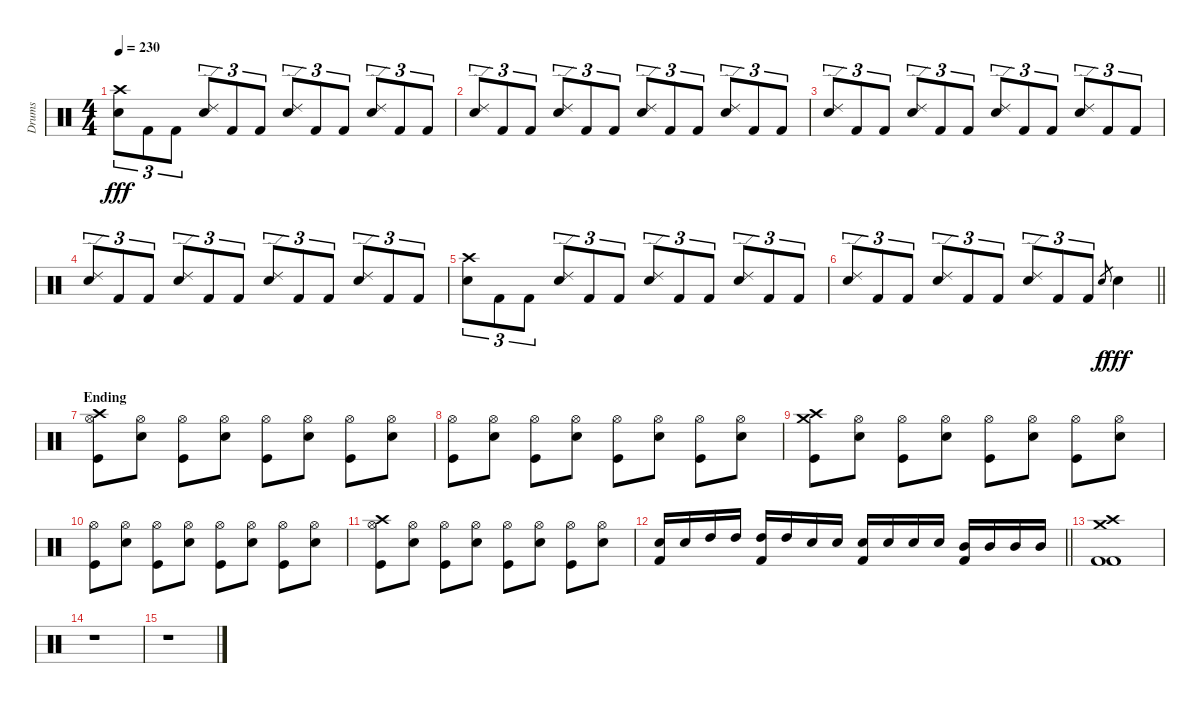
\track ("Drums" "Drums") {instrument percussion}
\staff {score}
\articulation defaults
\ts (4 4)
\tempo 230
\clef neutral
\ks c
("Crash high (hit)" "Electric Snare (hit)").8{tu (3 2) dy fff} "Kick (hit) 2".8{tu (3 2)} "Kick (hit) 2".8{tu (3 2)} ("Ride (edge) 2" "Electric Snare (hit)").8{tu (3 2)} "Kick (hit) 2".8{tu (3 2)} "Kick (hit) 2".8{tu (3 2)} ("Ride (edge) 2" "Electric Snare (hit)").8{tu (3 2)} "Kick (hit) 2".8{tu (3 2)} "Kick (hit) 2".8{tu (3 2)} ("Ride (edge) 2" "Electric Snare (hit)").8{tu (3 2)} "Kick (hit) 2".8{tu (3 2)} "Kick (hit) 2".8{tu (3 2)} |
("Ride (edge) 2" "Electric Snare (hit)").8{tu (3 2)} "Kick (hit) 2".8{tu (3 2)} "Kick (hit) 2".8{tu (3 2)} ("Ride (edge) 2" "Electric Snare (hit)").8{tu (3 2)} "Kick (hit) 2".8{tu (3 2)} "Kick (hit) 2".8{tu (3 2)} ("Ride (edge) 2" "Electric Snare (hit)").8{tu (3 2)} "Kick (hit) 2".8{tu (3 2)} "Kick (hit) 2".8{tu (3 2)} ("Ride (edge) 2" "Electric Snare (hit)").8{tu (3 2)} "Kick (hit) 2".8{tu (3 2)} "Kick (hit) 2".8{tu (3 2)} |
("Ride (edge) 2" "Electric Snare (hit)").8{tu (3 2)} "Kick (hit) 2".8{tu (3 2)} "Kick (hit) 2".8{tu (3 2)} ("Ride (edge) 2" "Electric Snare (hit)").8{tu (3 2)} "Kick (hit) 2".8{tu (3 2)} "Kick (hit) 2".8{tu (3 2)} ("Ride (edge) 2" "Electric Snare (hit)").8{tu (3 2)} "Kick (hit) 2".8{tu (3 2)} "Kick (hit) 2".8{tu (3 2)} ("Ride (edge) 2" "Electric Snare (hit)").8{tu (3 2)} "Kick (hit) 2".8{tu (3 2)} "Kick (hit) 2".8{tu (3 2)} |
("Ride (edge) 2" "Electric Snare (hit)").8{tu (3 2)} "Kick (hit) 2".8{tu (3 2)} "Kick (hit) 2".8{tu (3 2)} ("Ride (edge) 2" "Electric Snare (hit)").8{tu (3 2)} "Kick (hit) 2".8{tu (3 2)} "Kick (hit) 2".8{tu (3 2)} ("Ride (edge) 2" "Electric Snare (hit)").8{tu (3 2)} "Kick (hit) 2".8{tu (3 2)} "Kick (hit) 2".8{tu (3 2)} ("Ride (edge) 2" "Electric Snare (hit)").8{tu (3 2)} "Kick (hit) 2".8{tu (3 2)} "Kick (hit) 2".8{tu (3 2)} |
("Crash high (hit)" "Electric Snare (hit)").8{tu (3 2)} "Kick (hit) 2".8{tu (3 2)} "Kick (hit) 2".8{tu (3 2)} ("Ride (edge) 2" "Electric Snare (hit)").8{tu (3 2)} "Kick (hit) 2".8{tu (3 2)} "Kick (hit) 2".8{tu (3 2)} ("Ride (edge) 2" "Electric Snare (hit)").8{tu (3 2)} "Kick (hit) 2".8{tu (3 2)} "Kick (hit) 2".8{tu (3 2)} ("Ride (edge) 2" "Electric Snare (hit)").8{tu (3 2)} "Kick (hit) 2".8{tu (3 2)} "Kick (hit) 2".8{tu (3 2)} |
\barLineRight lightlight
("Ride (edge) 2" "Electric Snare (hit)").8{tu (3 2)} "Kick (hit) 2".8{tu (3 2)} "Kick (hit) 2".8{tu (3 2)} ("Ride (edge) 2" "Electric Snare (hit)").8{tu (3 2)} "Kick (hit) 2".8{tu (3 2)} "Kick (hit) 2".8{tu (3 2)} ("Ride (edge) 2" "Electric Snare (hit)").8{tu (3 2)} "Kick (hit) 2".8{tu (3 2)} "Kick (hit) 2".8{tu (3 2)} "Electric Snare (hit)".8{gr dy f} "Electric Snare (hit)".4{dy fff} |
\section ("" "Ending")
("Crash high (hit)" "Hi-Hat (open)" "Kick (hit)").8 ("Hi-Hat (open)" "Snare (hit) 2").8 ("Hi-Hat (open)" "Kick (hit)").8 ("Hi-Hat (open)" "Snare (hit) 2").8 ("Hi-Hat (open)" "Kick (hit)").8 ("Hi-Hat (open)" "Snare (hit) 2").8 ("Hi-Hat (open)" "Kick (hit)").8 ("Hi-Hat (open)" "Snare (hit) 2").8 |
("Hi-Hat (open)" "Kick (hit)").8 ("Hi-Hat (open)" "Snare (hit) 2").8 ("Hi-Hat (open)" "Kick (hit)").8 ("Hi-Hat (open)" "Snare (hit) 2").8 ("Hi-Hat (open)" "Kick (hit)").8 ("Hi-Hat (open)" "Snare (hit) 2").8 ("Hi-Hat (open)" "Kick (hit)").8 ("Hi-Hat (open)" "Snare (hit) 2").8 |
("Crash medium (hit)" "Crash high (hit)" "Kick (hit)").8 ("Hi-Hat (open)" "Snare (hit) 2").8 ("Hi-Hat (open)" "Kick (hit)").8 ("Hi-Hat (open)" "Snare (hit) 2").8 ("Hi-Hat (open)" "Kick (hit)").8 ("Hi-Hat (open)" "Snare (hit) 2").8 ("Hi-Hat (open)" "Kick (hit)").8 ("Hi-Hat (open)" "Snare (hit) 2").8 |
("Hi-Hat (open)" "Kick (hit)").8 ("Hi-Hat (open)" "Snare (hit) 2").8 ("Hi-Hat (open)" "Kick (hit)").8 ("Hi-Hat (open)" "Snare (hit) 2").8 ("Hi-Hat (open)" "Kick (hit)").8 ("Hi-Hat (open)" "Snare (hit) 2").8 ("Hi-Hat (open)" "Kick (hit)").8 ("Hi-Hat (open)" "Snare (hit) 2").8 |
("Crash high (hit)" "Hi-Hat (open)" "Kick (hit)").8 ("Hi-Hat (open)" "Snare (hit) 2").8 ("Hi-Hat (open)" "Kick (hit)").8 ("Hi-Hat (open)" "Snare (hit) 2").8 ("Hi-Hat (open)" "Kick (hit)").8 ("Hi-Hat (open)" "Snare (hit) 2").8 ("Hi-Hat (open)" "Kick (hit)").8 ("Hi-Hat (open)" "Snare (hit) 2").8 |
\barLineRight lightlight
("Electric Snare (hit)" "Kick (hit) 2").16 "Electric Snare (hit)".16 "High Tom (hit)".16 "High Tom (hit)".16 ("High Tom (hit)" "Kick (hit) 2").16 "High Tom (hit)".16 "Electric Snare (hit)".16 "Electric Snare (hit)".16 ("Electric Snare (hit)" "Kick (hit) 2").16 "Electric Snare (hit)".16 "Electric Snare (hit)".16 "Electric Snare (hit)".16 ("Mid Tom (hit)" "Kick (hit) 2").16 "Mid Tom (hit)".16 "Mid Tom (hit)".16 "Mid Tom (hit)".16 |
("Crash medium (hit)" "Crash high (hit)" "Kick (hit) 2" "Kick (hit) 2").1 |
r.1 |
r.1
